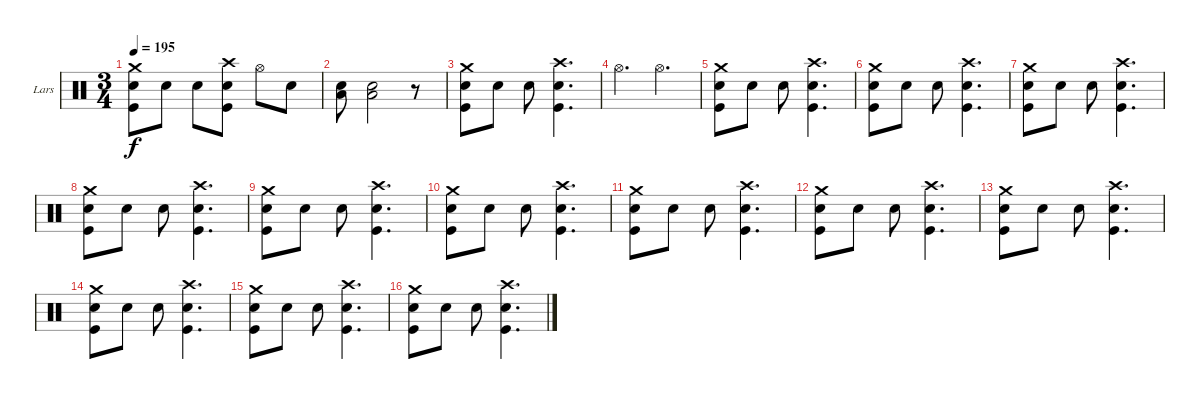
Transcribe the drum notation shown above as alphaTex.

\bracketExtendMode groupsimilarinstruments
\firstSystemTrackNameOrientation horizontal
\otherSystemsTrackNameOrientation horizontal
\track ("Drumkit" "Lars") {instrument percussion}
\staff {score}
\articulation defaults
\ts (3 4)
\tempo 195
\clef neutral
\ks c
("Crash medium (hit)" "Snare (hit) 2" "Kick (hit)").8{dy f} "Snare (hit) 2".8 "Snare (hit) 2".8 ("Crash high (hit)" "Snare (hit) 2" "Kick (hit)").8 "Hi-Hat (open)".8 "Snare (hit) 2".8 |
("Snare (hit) 2" "Low Tom (hit)").8 ("Snare (hit) 2" "Low Tom (hit)").2 r.8 |
("Crash medium (hit)" "Snare (hit) 2" "Kick (hit)").8 "Snare (hit) 2".8 "Snare (hit) 2".8 ("Crash high (hit)" "Snare (hit) 2" "Kick (hit)").4{d} |
"Hi-Hat (open)".4{d} "Hi-Hat (open)".4{d} |
("Crash medium (hit)" "Snare (hit) 2" "Kick (hit)").8 "Snare (hit) 2".8 "Snare (hit) 2".8 ("Crash high (hit)" "Snare (hit) 2" "Kick (hit)").4{d} |
("Crash medium (hit)" "Snare (hit) 2" "Kick (hit)").8 "Snare (hit) 2".8 "Snare (hit) 2".8 ("Crash high (hit)" "Snare (hit) 2" "Kick (hit)").4{d} |
("Crash medium (hit)" "Snare (hit) 2" "Kick (hit)").8 "Snare (hit) 2".8 "Snare (hit) 2".8 ("Crash high (hit)" "Snare (hit) 2" "Kick (hit)").4{d} |
("Crash medium (hit)" "Snare (hit) 2" "Kick (hit)").8 "Snare (hit) 2".8 "Snare (hit) 2".8 ("Crash high (hit)" "Snare (hit) 2" "Kick (hit)").4{d} |
("Crash medium (hit)" "Snare (hit) 2" "Kick (hit)").8 "Snare (hit) 2".8 "Snare (hit) 2".8 ("Crash high (hit)" "Snare (hit) 2" "Kick (hit)").4{d} |
("Crash medium (hit)" "Snare (hit) 2" "Kick (hit)").8 "Snare (hit) 2".8 "Snare (hit) 2".8 ("Crash high (hit)" "Snare (hit) 2" "Kick (hit)").4{d} |
("Crash medium (hit)" "Snare (hit) 2" "Kick (hit)").8 "Snare (hit) 2".8 "Snare (hit) 2".8 ("Crash high (hit)" "Snare (hit) 2" "Kick (hit)").4{d} |
("Crash medium (hit)" "Snare (hit) 2" "Kick (hit)").8 "Snare (hit) 2".8 "Snare (hit) 2".8 ("Crash high (hit)" "Snare (hit) 2" "Kick (hit)").4{d} |
("Crash medium (hit)" "Snare (hit) 2" "Kick (hit)").8 "Snare (hit) 2".8 "Snare (hit) 2".8 ("Crash high (hit)" "Snare (hit) 2" "Kick (hit)").4{d} |
("Crash medium (hit)" "Snare (hit) 2" "Kick (hit)").8 "Snare (hit) 2".8 "Snare (hit) 2".8 ("Crash high (hit)" "Snare (hit) 2" "Kick (hit)").4{d} |
("Crash medium (hit)" "Snare (hit) 2" "Kick (hit)").8 "Snare (hit) 2".8 "Snare (hit) 2".8 ("Crash high (hit)" "Snare (hit) 2" "Kick (hit)").4{d} |
("Crash medium (hit)" "Snare (hit) 2" "Kick (hit)").8 "Snare (hit) 2".8 "Snare (hit) 2".8 ("Crash high (hit)" "Snare (hit) 2" "Kick (hit)").4{d}
